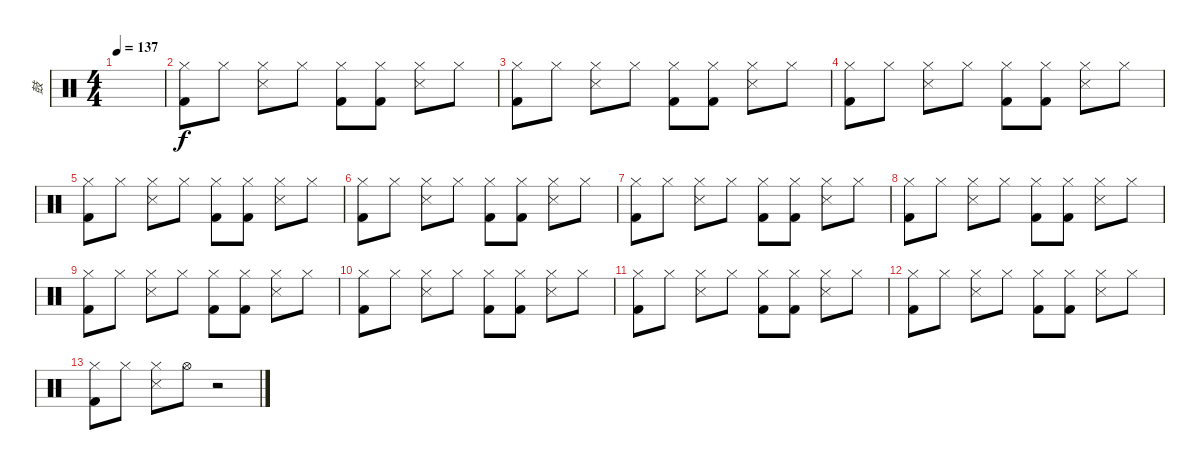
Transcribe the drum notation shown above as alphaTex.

\track ("鼓" "鼓") {instrument percussion}
\staff {score}
\articulation defaults
\ts (4 4)
\tempo 137
\clef neutral
\ks c
|
("Hi-Hat (closed)" "Kick (hit) 2").8 "Hi-Hat (closed)".8 ("Hi-Hat (closed)" "Snare (side stick) 3").8 "Hi-Hat (closed)".8 ("Hi-Hat (closed)" "Kick (hit) 2").8 ("Hi-Hat (closed)" "Kick (hit) 2").8 ("Hi-Hat (closed)" "Snare (side stick) 3").8 "Hi-Hat (closed)".8 |
("Hi-Hat (closed)" "Kick (hit) 2").8 "Hi-Hat (closed)".8 ("Hi-Hat (closed)" "Snare (side stick) 3").8 "Hi-Hat (closed)".8 ("Hi-Hat (closed)" "Kick (hit) 2").8 ("Hi-Hat (closed)" "Kick (hit) 2").8 ("Hi-Hat (closed)" "Snare (side stick) 3").8 "Hi-Hat (closed)".8 |
("Hi-Hat (closed)" "Kick (hit) 2").8 "Hi-Hat (closed)".8 ("Hi-Hat (closed)" "Snare (side stick) 3").8 "Hi-Hat (closed)".8 ("Hi-Hat (closed)" "Kick (hit) 2").8 ("Hi-Hat (closed)" "Kick (hit) 2").8 ("Hi-Hat (closed)" "Snare (side stick) 3").8 "Hi-Hat (closed)".8 |
("Hi-Hat (closed)" "Kick (hit) 2").8 "Hi-Hat (closed)".8 ("Hi-Hat (closed)" "Snare (side stick) 3").8 "Hi-Hat (closed)".8 ("Hi-Hat (closed)" "Kick (hit) 2").8 ("Hi-Hat (closed)" "Kick (hit) 2").8 ("Hi-Hat (closed)" "Snare (side stick) 3").8 "Hi-Hat (closed)".8 |
("Hi-Hat (closed)" "Kick (hit) 2").8 "Hi-Hat (closed)".8 ("Hi-Hat (closed)" "Snare (side stick) 3").8 "Hi-Hat (closed)".8 ("Hi-Hat (closed)" "Kick (hit) 2").8 ("Hi-Hat (closed)" "Kick (hit) 2").8 ("Hi-Hat (closed)" "Snare (side stick) 3").8 "Hi-Hat (closed)".8 |
("Hi-Hat (closed)" "Kick (hit) 2").8 "Hi-Hat (closed)".8 ("Hi-Hat (closed)" "Snare (side stick) 3").8 "Hi-Hat (closed)".8 ("Hi-Hat (closed)" "Kick (hit) 2").8 ("Hi-Hat (closed)" "Kick (hit) 2").8 ("Hi-Hat (closed)" "Snare (side stick) 3").8 "Hi-Hat (closed)".8 |
("Hi-Hat (closed)" "Kick (hit) 2").8 "Hi-Hat (closed)".8 ("Hi-Hat (closed)" "Snare (side stick) 3").8 "Hi-Hat (closed)".8 ("Hi-Hat (closed)" "Kick (hit) 2").8 ("Hi-Hat (closed)" "Kick (hit) 2").8 ("Hi-Hat (closed)" "Snare (side stick) 3").8 "Hi-Hat (closed)".8 |
("Hi-Hat (closed)" "Kick (hit) 2").8 "Hi-Hat (closed)".8 ("Hi-Hat (closed)" "Snare (side stick) 3").8 "Hi-Hat (closed)".8 ("Hi-Hat (closed)" "Kick (hit) 2").8 ("Hi-Hat (closed)" "Kick (hit) 2").8 ("Hi-Hat (closed)" "Snare (side stick) 3").8 "Hi-Hat (closed)".8 |
("Hi-Hat (closed)" "Kick (hit) 2").8 "Hi-Hat (closed)".8 ("Hi-Hat (closed)" "Snare (side stick) 3").8 "Hi-Hat (closed)".8 ("Hi-Hat (closed)" "Kick (hit) 2").8 ("Hi-Hat (closed)" "Kick (hit) 2").8 ("Hi-Hat (closed)" "Snare (side stick) 3").8 "Hi-Hat (closed)".8 |
("Hi-Hat (closed)" "Kick (hit) 2").8 "Hi-Hat (closed)".8 ("Hi-Hat (closed)" "Snare (side stick) 3").8 "Hi-Hat (closed)".8 ("Hi-Hat (closed)" "Kick (hit) 2").8 ("Hi-Hat (closed)" "Kick (hit) 2").8 ("Hi-Hat (closed)" "Snare (side stick) 3").8 "Hi-Hat (closed)".8 |
("Hi-Hat (closed)" "Kick (hit) 2").8 "Hi-Hat (closed)".8 ("Hi-Hat (closed)" "Snare (side stick) 3").8 "Hi-Hat (closed)".8 ("Hi-Hat (closed)" "Kick (hit) 2").8 ("Hi-Hat (closed)" "Kick (hit) 2").8 ("Hi-Hat (closed)" "Snare (side stick) 3").8 "Hi-Hat (closed)".8 |
("Hi-Hat (closed)" "Kick (hit) 2").8 "Hi-Hat (closed)".8 ("Hi-Hat (closed)" "Snare (side stick) 3").8 "Hi-Hat (open)".8 r.2
